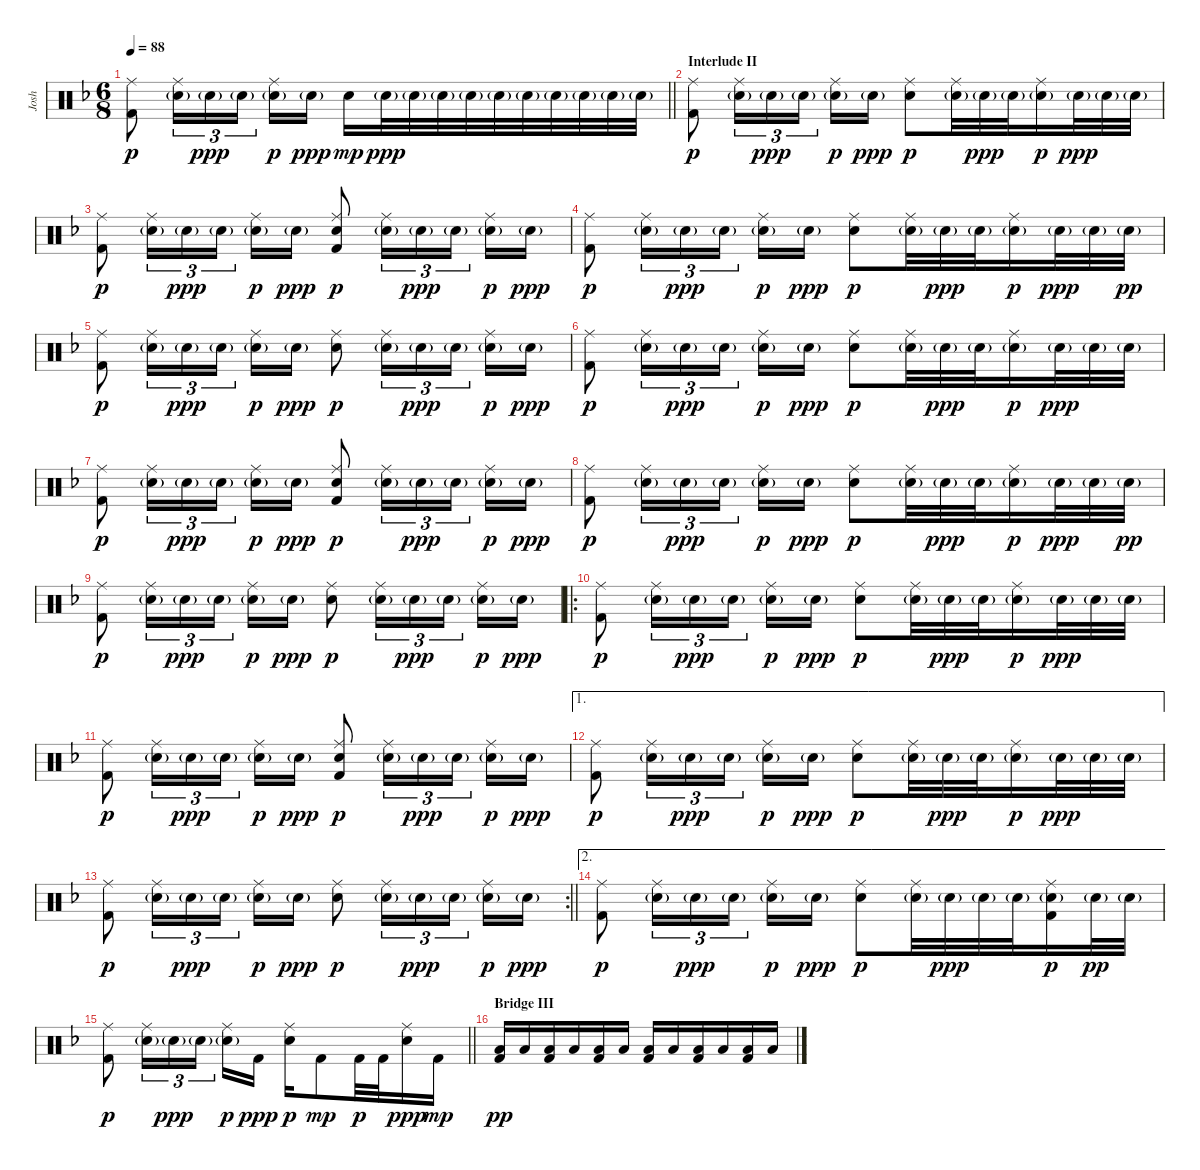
\track ("Josh" "Josh") {instrument percussion}
\staff {score}
\articulation defaults
\ts (6 8)
\tempo 88
\clef neutral
\barLineRight lightlight
\ks f
("Kick (hit) 2" "Ride (middle)").8{dy p} ("Snare (hit) 2"{g} "Ride (middle)").16{tu (3 2)} "Snare (hit) 2"{g}.16{tu (3 2) dy ppp} "Snare (hit) 2"{g}.16{tu (3 2) beam splitsecondary} ("Snare (hit) 2"{g} "Ride (middle)").16{dy p} "Snare (hit) 2"{g}.16{dy ppp} "Snare (hit) 2".16{dy mp} "Snare (hit) 2"{g}.32{dy ppp} "Snare (hit) 2"{g}.32 "Snare (hit) 2"{g}.32 "Snare (hit) 2"{g}.32 "Snare (hit) 2"{g}.32 "Snare (hit) 2"{g}.32 "Snare (hit) 2"{g}.32 "Snare (hit) 2"{g}.32 "Snare (hit) 2"{g}.32 "Snare (hit) 2"{g}.32 |
\section ("" "Interlude II")
("Kick (hit) 2" "Ride (middle)").8{dy p volume 7} ("Snare (hit) 2"{g} "Ride (middle)").16{tu (3 2)} "Snare (hit) 2"{g}.16{tu (3 2) dy ppp} "Snare (hit) 2"{g}.16{tu (3 2) beam splitsecondary} ("Snare (hit) 2"{g} "Ride (middle)").16{dy p} "Snare (hit) 2"{g}.16{dy ppp} ("Snare (hit) 2" "Ride (middle)").8{dy p} ("Snare (hit) 2"{g} "Ride (middle)").32 "Snare (hit) 2"{g}.32{dy ppp} "Snare (hit) 2"{g}.32 ("Snare (hit) 2"{g} "Ride (middle)").16{dy p} "Snare (hit) 2"{g}.32{dy ppp} "Snare (hit) 2"{g}.32 "Snare (hit) 2"{g}.32 |
("Kick (hit) 2" "Ride (middle)").8{dy p} ("Snare (hit) 2"{g} "Ride (middle)").16{tu (3 2)} "Snare (hit) 2"{g}.16{tu (3 2) dy ppp} "Snare (hit) 2"{g}.16{tu (3 2) beam splitsecondary} ("Snare (hit) 2"{g} "Ride (middle)").16{dy p} "Snare (hit) 2"{g}.16{dy ppp} ("Snare (hit) 2" "Kick (hit) 2" "Ride (middle)").8{dy p} ("Snare (hit) 2"{g} "Ride (middle)").16{tu (3 2)} "Snare (hit) 2"{g}.16{tu (3 2) dy ppp} "Snare (hit) 2"{g}.16{tu (3 2) beam splitsecondary} ("Snare (hit) 2"{g} "Ride (middle)").16{dy p} "Snare (hit) 2"{g}.16{dy ppp} |
("Kick (hit) 2" "Ride (middle)").8{dy p} ("Snare (hit) 2"{g} "Ride (middle)").16{tu (3 2)} "Snare (hit) 2"{g}.16{tu (3 2) dy ppp} "Snare (hit) 2"{g}.16{tu (3 2) beam splitsecondary} ("Snare (hit) 2"{g} "Ride (middle)").16{dy p} "Snare (hit) 2"{g}.16{dy ppp} ("Snare (hit) 2" "Ride (middle)").8{dy p} ("Snare (hit) 2"{g} "Ride (middle)").32 "Snare (hit) 2"{g}.32{dy ppp} "Snare (hit) 2"{g}.32 ("Snare (hit) 2"{g} "Ride (middle)").16{dy p} "Snare (hit) 2"{g}.32{dy ppp} "Snare (hit) 2"{g}.32 "Snare (hit) 2"{g}.32{dy pp} |
("Kick (hit) 2" "Ride (middle)").8{dy p} ("Snare (hit) 2"{g} "Ride (middle)").16{tu (3 2)} "Snare (hit) 2"{g}.16{tu (3 2) dy ppp} "Snare (hit) 2"{g}.16{tu (3 2) beam splitsecondary} ("Snare (hit) 2"{g} "Ride (middle)").16{dy p} "Snare (hit) 2"{g}.16{dy ppp} ("Snare (hit) 2" "Ride (middle)").8{dy p} ("Snare (hit) 2"{g} "Ride (middle)").16{tu (3 2)} "Snare (hit) 2"{g}.16{tu (3 2) dy ppp} "Snare (hit) 2"{g}.16{tu (3 2) beam splitsecondary} ("Snare (hit) 2"{g} "Ride (middle)").16{dy p} "Snare (hit) 2"{g}.16{dy ppp} |
("Kick (hit) 2" "Ride (middle)").8{dy p volume 7} ("Snare (hit) 2"{g} "Ride (middle)").16{tu (3 2)} "Snare (hit) 2"{g}.16{tu (3 2) dy ppp} "Snare (hit) 2"{g}.16{tu (3 2) beam splitsecondary} ("Snare (hit) 2"{g} "Ride (middle)").16{dy p} "Snare (hit) 2"{g}.16{dy ppp} ("Snare (hit) 2" "Ride (middle)").8{dy p} ("Snare (hit) 2"{g} "Ride (middle)").32 "Snare (hit) 2"{g}.32{dy ppp} "Snare (hit) 2"{g}.32 ("Snare (hit) 2"{g} "Ride (middle)").16{dy p} "Snare (hit) 2"{g}.32{dy ppp} "Snare (hit) 2"{g}.32 "Snare (hit) 2"{g}.32 |
("Kick (hit) 2" "Ride (middle)").8{dy p} ("Snare (hit) 2"{g} "Ride (middle)").16{tu (3 2)} "Snare (hit) 2"{g}.16{tu (3 2) dy ppp} "Snare (hit) 2"{g}.16{tu (3 2) beam splitsecondary} ("Snare (hit) 2"{g} "Ride (middle)").16{dy p} "Snare (hit) 2"{g}.16{dy ppp} ("Snare (hit) 2" "Kick (hit) 2" "Ride (middle)").8{dy p} ("Snare (hit) 2"{g} "Ride (middle)").16{tu (3 2)} "Snare (hit) 2"{g}.16{tu (3 2) dy ppp} "Snare (hit) 2"{g}.16{tu (3 2) beam splitsecondary} ("Snare (hit) 2"{g} "Ride (middle)").16{dy p} "Snare (hit) 2"{g}.16{dy ppp} |
("Kick (hit) 2" "Ride (middle)").8{dy p} ("Snare (hit) 2"{g} "Ride (middle)").16{tu (3 2)} "Snare (hit) 2"{g}.16{tu (3 2) dy ppp} "Snare (hit) 2"{g}.16{tu (3 2) beam splitsecondary} ("Snare (hit) 2"{g} "Ride (middle)").16{dy p} "Snare (hit) 2"{g}.16{dy ppp} ("Snare (hit) 2" "Ride (middle)").8{dy p} ("Snare (hit) 2"{g} "Ride (middle)").32 "Snare (hit) 2"{g}.32{dy ppp} "Snare (hit) 2"{g}.32 ("Snare (hit) 2"{g} "Ride (middle)").16{dy p} "Snare (hit) 2"{g}.32{dy ppp} "Snare (hit) 2"{g}.32 "Snare (hit) 2"{g}.32{dy pp} |
("Kick (hit) 2" "Ride (middle)").8{dy p} ("Snare (hit) 2"{g} "Ride (middle)").16{tu (3 2)} "Snare (hit) 2"{g}.16{tu (3 2) dy ppp} "Snare (hit) 2"{g}.16{tu (3 2) beam splitsecondary} ("Snare (hit) 2"{g} "Ride (middle)").16{dy p} "Snare (hit) 2"{g}.16{dy ppp} ("Snare (hit) 2" "Ride (middle)").8{dy p} ("Snare (hit) 2"{g} "Ride (middle)").16{tu (3 2)} "Snare (hit) 2"{g}.16{tu (3 2) dy ppp} "Snare (hit) 2"{g}.16{tu (3 2) beam splitsecondary} ("Snare (hit) 2"{g} "Ride (middle)").16{dy p} "Snare (hit) 2"{g}.16{dy ppp} |
\ro
("Kick (hit) 2" "Ride (middle)").8{dy p volume 7} ("Snare (hit) 2"{g} "Ride (middle)").16{tu (3 2)} "Snare (hit) 2"{g}.16{tu (3 2) dy ppp} "Snare (hit) 2"{g}.16{tu (3 2) beam splitsecondary} ("Snare (hit) 2"{g} "Ride (middle)").16{dy p} "Snare (hit) 2"{g}.16{dy ppp} ("Snare (hit) 2" "Ride (middle)").8{dy p} ("Snare (hit) 2"{g} "Ride (middle)").32 "Snare (hit) 2"{g}.32{dy ppp} "Snare (hit) 2"{g}.32 ("Snare (hit) 2"{g} "Ride (middle)").16{dy p} "Snare (hit) 2"{g}.32{dy ppp} "Snare (hit) 2"{g}.32 "Snare (hit) 2"{g}.32 |
("Kick (hit) 2" "Ride (middle)").8{dy p} ("Snare (hit) 2"{g} "Ride (middle)").16{tu (3 2)} "Snare (hit) 2"{g}.16{tu (3 2) dy ppp} "Snare (hit) 2"{g}.16{tu (3 2) beam splitsecondary} ("Snare (hit) 2"{g} "Ride (middle)").16{dy p} "Snare (hit) 2"{g}.16{dy ppp} ("Snare (hit) 2" "Kick (hit) 2" "Ride (middle)").8{dy p} ("Snare (hit) 2"{g} "Ride (middle)").16{tu (3 2)} "Snare (hit) 2"{g}.16{tu (3 2) dy ppp} "Snare (hit) 2"{g}.16{tu (3 2) beam splitsecondary} ("Snare (hit) 2"{g} "Ride (middle)").16{dy p} "Snare (hit) 2"{g}.16{dy ppp} |
\ae 1
("Kick (hit) 2" "Ride (middle)").8{dy p} ("Snare (hit) 2"{g} "Ride (middle)").16{tu (3 2)} "Snare (hit) 2"{g}.16{tu (3 2) dy ppp} "Snare (hit) 2"{g}.16{tu (3 2) beam splitsecondary} ("Snare (hit) 2"{g} "Ride (middle)").16{dy p} "Snare (hit) 2"{g}.16{dy ppp} ("Snare (hit) 2" "Ride (middle)").8{dy p} ("Snare (hit) 2"{g} "Ride (middle)").32 "Snare (hit) 2"{g}.32{dy ppp} "Snare (hit) 2"{g}.32 ("Snare (hit) 2"{g} "Ride (middle)").16{dy p} "Snare (hit) 2"{g}.32{dy ppp} "Snare (hit) 2"{g}.32 "Snare (hit) 2"{g}.32 |
\rc 2
\barLineRight lightlight
("Kick (hit) 2" "Ride (middle)").8{dy p} ("Snare (hit) 2"{g} "Ride (middle)").16{tu (3 2)} "Snare (hit) 2"{g}.16{tu (3 2) dy ppp} "Snare (hit) 2"{g}.16{tu (3 2) beam splitsecondary} ("Snare (hit) 2"{g} "Ride (middle)").16{dy p} "Snare (hit) 2"{g}.16{dy ppp} ("Snare (hit) 2" "Ride (middle)").8{dy p} ("Snare (hit) 2"{g} "Ride (middle)").16{tu (3 2)} "Snare (hit) 2"{g}.16{tu (3 2) dy ppp} "Snare (hit) 2"{g}.16{tu (3 2) beam splitsecondary} ("Snare (hit) 2"{g} "Ride (middle)").16{dy p} "Snare (hit) 2"{g}.16{dy ppp} |
\ae 2
("Kick (hit) 2" "Ride (middle)").8{dy p} ("Snare (hit) 2"{g} "Ride (middle)").16{tu (3 2)} "Snare (hit) 2"{g}.16{tu (3 2) dy ppp} "Snare (hit) 2"{g}.16{tu (3 2) beam splitsecondary} ("Snare (hit) 2"{g} "Ride (middle)").16{dy p} "Snare (hit) 2"{g}.16{dy ppp} ("Snare (hit) 2" "Ride (middle)").8{dy p} ("Snare (hit) 2"{g} "Ride (middle)").32 "Snare (hit) 2"{g}.32{dy ppp} "Snare (hit) 2"{g}.32 "Snare (hit) 2"{g}.32 ("Snare (hit) 2"{g} "Kick (hit) 2" "Ride (middle)").16{dy p} "Snare (hit) 2"{g}.32{dy pp} "Snare (hit) 2"{g}.32 |
\barLineRight lightlight
("Kick (hit) 2" "Ride (middle)").8{dy p} ("Snare (hit) 2"{g} "Ride (middle)").16{tu (3 2)} "Snare (hit) 2"{g}.16{tu (3 2) dy ppp} "Snare (hit) 2"{g}.16{tu (3 2) beam splitsecondary} ("Snare (hit) 2"{g} "Ride (middle)").16{dy p} "Kick (hit) 2".16{dy ppp} ("Snare (hit) 2" "Ride (middle)").16{dy p} "Kick (hit) 2".8{dy mp} "Kick (hit) 2".32{dy p} "Kick (hit) 2".32 ("Snare (hit) 2" "Ride (middle)").16{dy ppp} "Kick (hit) 2".16{dy mp} |
\section ("" "Bridge III")
("Low Tom (hit)" "Kick (hit) 2").16{dy pp} "Low Tom (hit)".16 ("Low Tom (hit)" "Kick (hit) 2").16 "Low Tom (hit)".16 ("Low Tom (hit)" "Kick (hit) 2").16 "Low Tom (hit)".16 ("Low Tom (hit)" "Kick (hit) 2").16 "Low Tom (hit)".16 ("Low Tom (hit)" "Kick (hit) 2").16 "Low Tom (hit)".16 ("Low Tom (hit)" "Kick (hit) 2").16 "Low Tom (hit)".16
